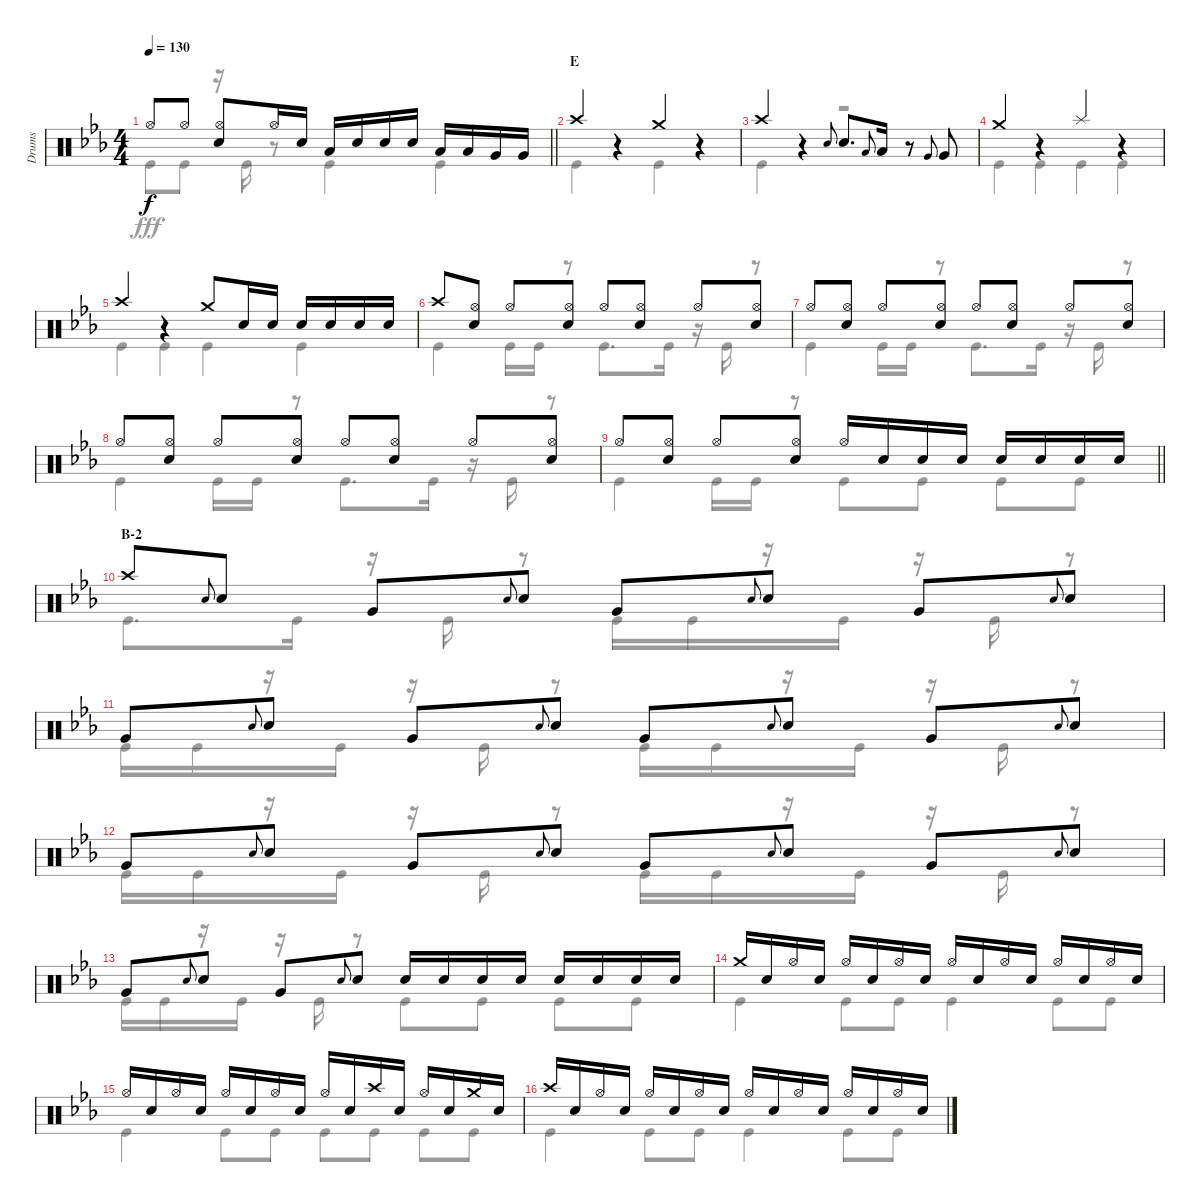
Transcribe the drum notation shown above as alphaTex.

\track ("Drums" "Drums") {instrument percussion}
\staff {score}
\articulation defaults
\voice
\ts (4 4)
\tempo 130
\clef neutral
\barLineRight lightlight
\ks eb "Hi-Hat (open)".8{dy f} "Hi-Hat (open)".8
("Hi-Hat (open)" "Snare (hit) 2").8 "Hi-Hat (open)".16 "Snare (hit) 2".16 "Low Tom (hit)".16 "Snare (hit) 2".16 "Snare (hit) 2".16 "Snare (hit) 2".16 "Low Tom (hit)".16 "Low Tom (hit)".16 "Very Low Tom (hit)".16 "Very Low Tom (hit)".16 |
\section ("" "E")
"Crash high (hit)".4 r.4 "Crash medium (hit)".4 r.4 |
"Crash high (hit)".4 r.4 "Snare (hit) 2".8{gr onbeat} "Snare (hit) 2".8{d} "Low Tom (hit)".8{gr onbeat} "Low Tom (hit)".16 r.8 "Very Low Tom (hit)".8{gr onbeat} "Very Low Tom (hit)".8 |
"Crash medium (hit)".4 r.4 "Splash (hit)".4 r.4 |
"Crash high (hit)".4 r.4 "Crash medium (hit)".8 "Snare (hit) 2".16 "Snare (hit) 2".16 "Snare (hit) 2".16 "Snare (hit) 2".16 "Snare (hit) 2".16 "Snare (hit) 2".16 |
"Crash high (hit)".8 ("Hi-Hat (open)" "Snare (hit) 2").8 "Hi-Hat (open)".8 ("Hi-Hat (open)" "Snare (hit) 2").8 "Hi-Hat (open)".8 ("Hi-Hat (open)" "Snare (hit) 2").8 "Hi-Hat (open)".8 ("Hi-Hat (open)" "Snare (hit) 2").8 |
"Hi-Hat (open)".8 ("Hi-Hat (open)" "Snare (hit) 2").8 "Hi-Hat (open)".8 ("Hi-Hat (open)" "Snare (hit) 2").8 "Hi-Hat (open)".8 ("Hi-Hat (open)" "Snare (hit) 2").8 "Hi-Hat (open)".8 ("Hi-Hat (open)" "Snare (hit) 2").8 |
"Hi-Hat (open)".8 ("Hi-Hat (open)" "Snare (hit) 2").8 "Hi-Hat (open)".8 ("Hi-Hat (open)" "Snare (hit) 2").8 "Hi-Hat (open)".8 ("Hi-Hat (open)" "Snare (hit) 2").8 "Hi-Hat (open)".8 ("Hi-Hat (open)" "Snare (hit) 2").8 |
\barLineRight lightlight "Hi-Hat (open)".8
("Hi-Hat (open)" "Snare (hit) 2").8 "Hi-Hat (open)".8 ("Hi-Hat (open)" "Snare (hit) 2").8 "Hi-Hat (open)".16 "Snare (hit) 2".16 "Snare (hit) 2".16 "Snare (hit) 2".16 "Snare (hit) 2".16 "Snare (hit) 2".16 "Snare (hit) 2".16 "Snare (hit) 2".16 |
\section ("" "B-2")
"Crash high (hit)".8 "Snare (hit) 2".8{gr onbeat} "Snare (hit) 2".8 "Very Low Tom (hit)".8 "Snare (hit) 2".8{gr onbeat} "Snare (hit) 2".8 "Very Low Tom (hit)".8 "Snare (hit) 2".8{gr onbeat} "Snare (hit) 2".8 "Very Low Tom (hit)".8 "Snare (hit) 2".8{gr onbeat} "Snare (hit) 2".8 |
"Very Low Tom (hit)".8 "Snare (hit) 2".8{gr onbeat} "Snare (hit) 2".8 "Very Low Tom (hit)".8 "Snare (hit) 2".8{gr onbeat} "Snare (hit) 2".8 "Very Low Tom (hit)".8 "Snare (hit) 2".8{gr onbeat} "Snare (hit) 2".8 "Very Low Tom (hit)".8 "Snare (hit) 2".8{gr onbeat} "Snare (hit) 2".8 |
"Very Low Tom (hit)".8 "Snare (hit) 2".8{gr onbeat} "Snare (hit) 2".8 "Very Low Tom (hit)".8 "Snare (hit) 2".8{gr onbeat} "Snare (hit) 2".8 "Very Low Tom (hit)".8 "Snare (hit) 2".8{gr onbeat} "Snare (hit) 2".8 "Very Low Tom (hit)".8 "Snare (hit) 2".8{gr onbeat} "Snare (hit) 2".8 |
"Very Low Tom (hit)".8 "Snare (hit) 2".8{gr onbeat} "Snare (hit) 2".8 "Very Low Tom (hit)".8 "Snare (hit) 2".8{gr onbeat} "Snare (hit) 2".8 "Snare (hit) 2".16 "Snare (hit) 2".16 "Snare (hit) 2".16 "Snare (hit) 2".16 "Snare (hit) 2".16 "Snare (hit) 2".16 "Snare (hit) 2".16 "Snare (hit) 2".16 |
"Crash medium (hit)".16 "Snare (hit) 2".16 "Hi-Hat (open)".16 "Snare (hit) 2".16 "Hi-Hat (open)".16 "Snare (hit) 2".16 "Hi-Hat (open)".16 "Snare (hit) 2".16 "Hi-Hat (open)".16 "Snare (hit) 2".16 "Hi-Hat (open)".16 "Snare (hit) 2".16 "Hi-Hat (open)".16 "Snare (hit) 2".16 "Hi-Hat (open)".16 "Snare (hit) 2".16 |
"Hi-Hat (open)".16 "Snare (hit) 2".16 "Hi-Hat (open)".16 "Snare (hit) 2".16 "Hi-Hat (open)".16 "Snare (hit) 2".16 "Hi-Hat (open)".16 "Snare (hit) 2".16 "Hi-Hat (open)".16 "Snare (hit) 2".16 "Crash high (hit)".16 "Snare (hit) 2".16 "Hi-Hat (open)".16 "Snare (hit) 2".16 "Crash medium (hit)".16 "Snare (hit) 2".16 |
"Crash high (hit)".16 "Snare (hit) 2".16 "Hi-Hat (open)".16 "Snare (hit) 2".16 "Hi-Hat (open)".16 "Snare (hit) 2".16 "Hi-Hat (open)".16 "Snare (hit) 2".16 "Hi-Hat (open)".16 "Snare (hit) 2".16 "Hi-Hat (open)".16 "Snare (hit) 2".16 "Hi-Hat (open)".16 "Snare (hit) 2".16 "Hi-Hat (open)".16 "Snare (hit) 2".16
\voice
\clef neutral
\ottava regular
\simile none
\barLineRight lightlight
\ks eb "Kick (hit)".8{dy fff} "Kick (hit)".8
r.16 "Kick (hit)".16 r.8 "Kick (hit)".4 "Kick (hit)".4 |
"Kick (hit)".4 r.4 "Kick (hit)".4 r.4 |
"Kick (hit)".4 r.4 r.2 |
"Kick (hit)".4 "Kick (hit)".4 "Kick (hit)".4 "Kick (hit)".4 |
"Kick (hit)".4 "Kick (hit)".4 "Kick (hit)".4 "Kick (hit)".4 |
"Kick (hit)".4 "Kick (hit)".16 "Kick (hit)".16 r.8 "Kick (hit)".8{d} "Kick (hit)".16 r.16 "Kick (hit)".16 r.8 |
"Kick (hit)".4 "Kick (hit)".16 "Kick (hit)".16 r.8 "Kick (hit)".8{d} "Kick (hit)".16 r.16 "Kick (hit)".16 r.8 |
"Kick (hit)".4 "Kick (hit)".16 "Kick (hit)".16 r.8 "Kick (hit)".8{d} "Kick (hit)".16 r.16 "Kick (hit)".16 r.8 |
\barLineRight lightlight "Kick (hit)".4 "Kick (hit)".16 "Kick (hit)".16
r.8 "Kick (hit)".8 "Kick (hit)".8 "Kick (hit)".8 "Kick (hit)".8 |
"Kick (hit)".8{d} "Kick (hit)".16 r.16 "Kick (hit)".16 r.8 "Kick (hit)".16 "Kick (hit)".16 r.16 "Kick (hit)".16 r.16 "Kick (hit)".16 r.8 |
"Kick (hit)".16 "Kick (hit)".16 r.16 "Kick (hit)".16 r.16 "Kick (hit)".16 r.8 "Kick (hit)".16 "Kick (hit)".16 r.16 "Kick (hit)".16 r.16 "Kick (hit)".16 r.8 |
"Kick (hit)".16 "Kick (hit)".16 r.16 "Kick (hit)".16 r.16 "Kick (hit)".16 r.8 "Kick (hit)".16 "Kick (hit)".16 r.16 "Kick (hit)".16 r.16 "Kick (hit)".16 r.8 |
"Kick (hit)".16 "Kick (hit)".16 r.16 "Kick (hit)".16 r.16 "Kick (hit)".16 r.8 "Kick (hit)".8 "Kick (hit)".8 "Kick (hit)".8 "Kick (hit)".8 |
"Kick (hit)".4 "Kick (hit)".8 "Kick (hit)".8 "Kick (hit)".4 "Kick (hit)".8 "Kick (hit)".8 |
"Kick (hit)".4 "Kick (hit)".8 "Kick (hit)".8 "Kick (hit)".8 "Kick (hit)".8 "Kick (hit)".8 "Kick (hit)".8 |
"Kick (hit)".4 "Kick (hit)".8 "Kick (hit)".8 "Kick (hit)".4 "Kick (hit)".8 "Kick (hit)".8
